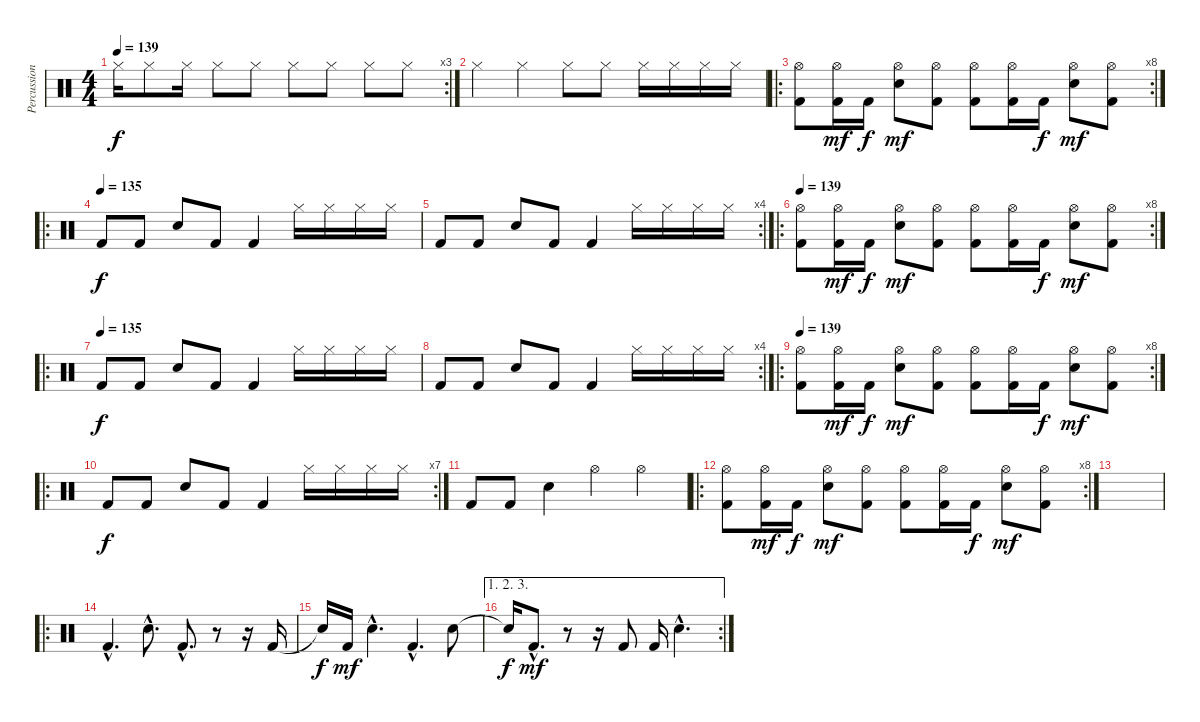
\track ("Percussion" "Percussion") {instrument percussion}
\staff {score}
\articulation defaults
\rc 3
\ts (4 4)
\tempo 139
\clef neutral
\ks c "Hi-Hat (closed)".16{dy f} "Hi-Hat (closed)".8 "Hi-Hat (closed)".16 "Hi-Hat (closed)".8 "Hi-Hat (closed)".8 "Hi-Hat (closed)".8 "Hi-Hat (closed)".8 "Hi-Hat (closed)".8 "Hi-Hat (closed)".8
|
"Hi-Hat (closed)".4 "Hi-Hat (closed)".4 "Hi-Hat (closed)".8 "Hi-Hat (closed)".8 "Hi-Hat (closed)".16 "Hi-Hat (closed)".16 "Hi-Hat (closed)".16 "Hi-Hat (closed)".16 |
\ro
\rc 8
("Hi-Hat (open)" "Kick (hit) 2").8 ("Hi-Hat (open)" "Kick (hit) 2").16{dy mf} "Kick (hit) 2".16{dy f} ("Hi-Hat (open)" "Electric Snare (hit)").8{dy mf} ("Hi-Hat (open)" "Kick (hit) 2").8 ("Hi-Hat (open)" "Kick (hit) 2").8 ("Hi-Hat (open)" "Kick (hit) 2").16 "Kick (hit) 2".16{dy f} ("Hi-Hat (open)" "Electric Snare (hit)").8{dy mf} ("Hi-Hat (open)" "Kick (hit) 2").8 |
\ro
\tempo (135)
"Kick (hit) 2".8{dy f} "Kick (hit) 2".8 "Electric Snare (hit)".8 "Kick (hit) 2".8 "Kick (hit) 2".4 "Hi-Hat (closed)".16 "Hi-Hat (closed)".16 "Hi-Hat (closed)".16 "Hi-Hat (closed)".16 |
\rc 4 "Kick (hit) 2".8 "Kick (hit) 2".8 "Electric Snare (hit)".8 "Kick (hit) 2".8 "Kick (hit) 2".4 "Hi-Hat (closed)".16 "Hi-Hat (closed)".16 "Hi-Hat (closed)".16 "Hi-Hat (closed)".16
|
\ro
\rc 8
\tempo 139
("Hi-Hat (open)" "Kick (hit) 2").8 ("Hi-Hat (open)" "Kick (hit) 2").16{dy mf} "Kick (hit) 2".16{dy f} ("Hi-Hat (open)" "Electric Snare (hit)").8{dy mf} ("Hi-Hat (open)" "Kick (hit) 2").8 ("Hi-Hat (open)" "Kick (hit) 2").8 ("Hi-Hat (open)" "Kick (hit) 2").16 "Kick (hit) 2".16{dy f} ("Hi-Hat (open)" "Electric Snare (hit)").8{dy mf} ("Hi-Hat (open)" "Kick (hit) 2").8 |
\ro
\tempo (135)
"Kick (hit) 2".8{dy f} "Kick (hit) 2".8 "Electric Snare (hit)".8 "Kick (hit) 2".8 "Kick (hit) 2".4 "Hi-Hat (closed)".16 "Hi-Hat (closed)".16 "Hi-Hat (closed)".16 "Hi-Hat (closed)".16 |
\rc 4 "Kick (hit) 2".8 "Kick (hit) 2".8 "Electric Snare (hit)".8 "Kick (hit) 2".8 "Kick (hit) 2".4 "Hi-Hat (closed)".16 "Hi-Hat (closed)".16 "Hi-Hat (closed)".16 "Hi-Hat (closed)".16
|
\ro
\rc 8
\tempo 139
("Hi-Hat (open)" "Kick (hit) 2").8 ("Hi-Hat (open)" "Kick (hit) 2").16{dy mf} "Kick (hit) 2".16{dy f} ("Hi-Hat (open)" "Electric Snare (hit)").8{dy mf} ("Hi-Hat (open)" "Kick (hit) 2").8 ("Hi-Hat (open)" "Kick (hit) 2").8 ("Hi-Hat (open)" "Kick (hit) 2").16 "Kick (hit) 2".16{dy f} ("Hi-Hat (open)" "Electric Snare (hit)").8{dy mf} ("Hi-Hat (open)" "Kick (hit) 2").8 |
\ro
\rc 7 "Kick (hit) 2".8{dy f} "Kick (hit) 2".8 "Electric Snare (hit)".8 "Kick (hit) 2".8 "Kick (hit) 2".4 "Hi-Hat (closed)".16 "Hi-Hat (closed)".16 "Hi-Hat (closed)".16 "Hi-Hat (closed)".16
|
"Kick (hit) 2".8 "Kick (hit) 2".8 "Electric Snare (hit)".4 "Hi-Hat (open)".4 "Hi-Hat (open)".4 |
\ro
\rc 8
("Hi-Hat (open)" "Kick (hit) 2").8 ("Hi-Hat (open)" "Kick (hit) 2").16{dy mf} "Kick (hit) 2".16{dy f} ("Hi-Hat (open)" "Electric Snare (hit)").8{dy mf} ("Hi-Hat (open)" "Kick (hit) 2").8 ("Hi-Hat (open)" "Kick (hit) 2").8 ("Hi-Hat (open)" "Kick (hit) 2").16 "Kick (hit) 2".16{dy f} ("Hi-Hat (open)" "Electric Snare (hit)").8{dy mf} ("Hi-Hat (open)" "Kick (hit) 2").8 |
|
\ro "Kick (hit) 2"{hac}.4{d} "Electric Snare (hit)"{hac}.8{d} "Kick (hit) 2"{hac}.8{d}
r.8 r.16 "Kick (hit) 2".16 |
"Snare (hit)"{t}.16{dy f} "Kick (hit) 2".16{dy mf} "Electric Snare (hit)"{hac}.4{d} "Kick (hit) 2"{hac}.4{d} "Electric Snare (hit)".8 |
\ae (1 2 3)
\rc 2 "Snare (hit)"{t}.16{dy f} "Kick (hit) 2"{hac}.8{d dy mf}
r.8 r.16 "Kick (hit) 2".8 "Kick (hit) 2".16 "Electric Snare (hit)"{hac}.4{d}
